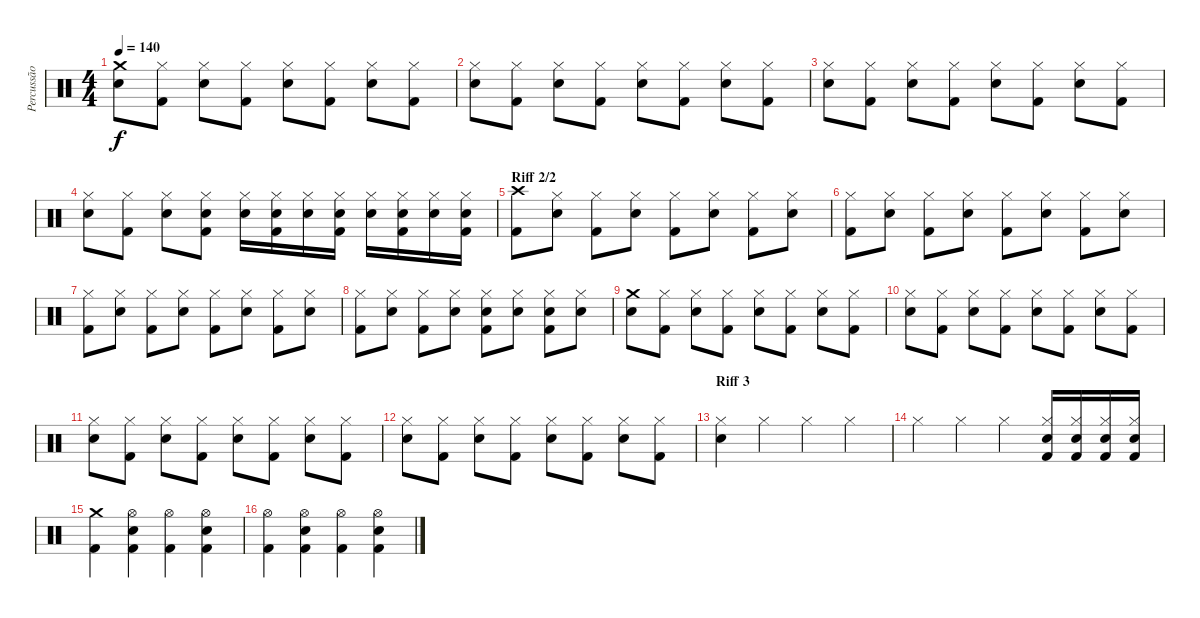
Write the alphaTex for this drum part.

\track ("Percussão" "Percussão") {instrument percussion}
\staff {score}
\articulation defaults
\ts (4 4)
\tempo 140
\clef neutral
\ks c
("Crash medium (hit)" "Snare (hit) 2").8{dy f} ("Hi-Hat (closed)" "Kick (hit) 2").8 ("Hi-Hat (closed)" "Snare (hit) 2").8 ("Hi-Hat (closed)" "Kick (hit) 2").8 ("Hi-Hat (closed)" "Snare (hit) 2").8 ("Hi-Hat (closed)" "Kick (hit) 2").8 ("Hi-Hat (closed)" "Snare (hit) 2").8 ("Hi-Hat (closed)" "Kick (hit) 2").8 |
("Hi-Hat (closed)" "Snare (hit) 2").8 ("Hi-Hat (closed)" "Kick (hit) 2").8 ("Hi-Hat (closed)" "Snare (hit) 2").8 ("Hi-Hat (closed)" "Kick (hit) 2").8 ("Hi-Hat (closed)" "Snare (hit) 2").8 ("Hi-Hat (closed)" "Kick (hit) 2").8 ("Hi-Hat (closed)" "Snare (hit) 2").8 ("Hi-Hat (closed)" "Kick (hit) 2").8 |
("Hi-Hat (closed)" "Snare (hit) 2").8 ("Hi-Hat (closed)" "Kick (hit) 2").8 ("Hi-Hat (closed)" "Snare (hit) 2").8 ("Hi-Hat (closed)" "Kick (hit) 2").8 ("Hi-Hat (closed)" "Snare (hit) 2").8 ("Hi-Hat (closed)" "Kick (hit) 2").8 ("Hi-Hat (closed)" "Snare (hit) 2").8 ("Hi-Hat (closed)" "Kick (hit) 2").8 |
("Hi-Hat (closed)" "Snare (hit) 2").8 ("Hi-Hat (closed)" "Kick (hit) 2").8 ("Hi-Hat (closed)" "Snare (hit) 2").8 ("Hi-Hat (closed)" "Snare (hit) 2" "Kick (hit) 2").8 ("Hi-Hat (closed)" "Electric Snare (hit)").16 ("Hi-Hat (closed)" "Electric Snare (hit)" "Kick (hit) 2").16 ("Hi-Hat (closed)" "Electric Snare (hit)").16 ("Hi-Hat (closed)" "Electric Snare (hit)" "Kick (hit) 2").16 ("Hi-Hat (closed)" "Snare (hit) 2").16 ("Hi-Hat (closed)" "Snare (hit) 2" "Kick (hit) 2").16 ("Hi-Hat (closed)" "Snare (hit) 2").16 ("Hi-Hat (closed)" "Snare (hit) 2" "Kick (hit) 2").16 |
\section ("" "Riff 2/2")
("Crash high (hit)" "Kick (hit) 2").8 ("Hi-Hat (closed)" "Snare (hit) 2").8 ("Hi-Hat (closed)" "Kick (hit) 2").8 ("Hi-Hat (closed)" "Snare (hit) 2").8 ("Hi-Hat (closed)" "Kick (hit) 2").8 ("Hi-Hat (closed)" "Snare (hit) 2").8 ("Hi-Hat (closed)" "Kick (hit) 2").8 ("Hi-Hat (closed)" "Snare (hit) 2").8 |
("Hi-Hat (closed)" "Kick (hit) 2").8 ("Hi-Hat (closed)" "Snare (hit) 2").8 ("Hi-Hat (closed)" "Kick (hit) 2").8 ("Hi-Hat (closed)" "Snare (hit) 2").8 ("Hi-Hat (closed)" "Kick (hit) 2").8 ("Hi-Hat (closed)" "Snare (hit) 2").8 ("Hi-Hat (closed)" "Kick (hit) 2").8 ("Hi-Hat (closed)" "Snare (hit) 2").8 |
("Hi-Hat (closed)" "Kick (hit) 2").8 ("Hi-Hat (closed)" "Snare (hit) 2").8 ("Hi-Hat (closed)" "Kick (hit) 2").8 ("Hi-Hat (closed)" "Snare (hit) 2").8 ("Hi-Hat (closed)" "Kick (hit) 2").8 ("Hi-Hat (closed)" "Snare (hit) 2").8 ("Hi-Hat (closed)" "Kick (hit) 2").8 ("Hi-Hat (closed)" "Snare (hit) 2").8 |
("Hi-Hat (closed)" "Kick (hit) 2").8 ("Hi-Hat (closed)" "Snare (hit) 2").8 ("Hi-Hat (closed)" "Kick (hit) 2").8 ("Hi-Hat (closed)" "Snare (hit) 2").8 ("Hi-Hat (closed)" "Snare (hit) 2" "Kick (hit) 2").8 ("Hi-Hat (closed)" "Snare (hit) 2").8 ("Hi-Hat (closed)" "Snare (hit) 2" "Kick (hit) 2").8 ("Hi-Hat (closed)" "Snare (hit) 2").8 |
("Crash medium (hit)" "Snare (hit) 2").8 ("Hi-Hat (closed)" "Kick (hit) 2").8 ("Hi-Hat (closed)" "Snare (hit) 2").8 ("Hi-Hat (closed)" "Kick (hit) 2").8 ("Hi-Hat (closed)" "Snare (hit) 2").8 ("Hi-Hat (closed)" "Kick (hit) 2").8 ("Hi-Hat (closed)" "Snare (hit) 2").8 ("Hi-Hat (closed)" "Kick (hit) 2").8 |
("Hi-Hat (closed)" "Snare (hit) 2").8 ("Hi-Hat (closed)" "Kick (hit) 2").8 ("Hi-Hat (closed)" "Snare (hit) 2").8 ("Hi-Hat (closed)" "Kick (hit) 2").8 ("Hi-Hat (closed)" "Snare (hit) 2").8 ("Hi-Hat (closed)" "Kick (hit) 2").8 ("Hi-Hat (closed)" "Snare (hit) 2").8 ("Hi-Hat (closed)" "Kick (hit) 2").8 |
("Hi-Hat (closed)" "Snare (hit) 2").8 ("Hi-Hat (closed)" "Kick (hit) 2").8 ("Hi-Hat (closed)" "Snare (hit) 2").8 ("Hi-Hat (closed)" "Kick (hit) 2").8 ("Hi-Hat (closed)" "Snare (hit) 2").8 ("Hi-Hat (closed)" "Kick (hit) 2").8 ("Hi-Hat (closed)" "Snare (hit) 2").8 ("Hi-Hat (closed)" "Kick (hit) 2").8 |
("Hi-Hat (closed)" "Snare (hit) 2").8 ("Hi-Hat (closed)" "Kick (hit) 2").8 ("Hi-Hat (closed)" "Snare (hit) 2").8 ("Hi-Hat (closed)" "Kick (hit) 2").8 ("Hi-Hat (closed)" "Snare (hit) 2").8 ("Hi-Hat (closed)" "Kick (hit) 2").8 ("Hi-Hat (closed)" "Snare (hit) 2").8 ("Hi-Hat (closed)" "Kick (hit) 2").8 |
\section ("" "Riff 3")
("Hi-Hat (closed)" "Snare (hit) 2").4 "Hi-Hat (closed)".4 "Hi-Hat (closed)".4 "Hi-Hat (closed)".4 |
"Hi-Hat (closed)".4 "Hi-Hat (closed)".4 "Hi-Hat (closed)".4 ("Hi-Hat (closed)" "Snare (hit) 2" "Kick (hit) 2").16 ("Hi-Hat (closed)" "Snare (hit) 2" "Kick (hit) 2").16 ("Hi-Hat (closed)" "Snare (hit) 2" "Kick (hit) 2").16 ("Hi-Hat (closed)" "Snare (hit) 2" "Kick (hit) 2").16 |
("Crash medium (hit)" "Kick (hit) 2").4 ("Hi-Hat (open)" "Snare (hit) 2" "Kick (hit) 2").4 ("Hi-Hat (open)" "Kick (hit) 2").4 ("Hi-Hat (open)" "Snare (hit) 2" "Kick (hit) 2").4 |
("Hi-Hat (open)" "Kick (hit) 2").4 ("Hi-Hat (open)" "Snare (hit) 2" "Kick (hit) 2").4 ("Hi-Hat (open)" "Kick (hit) 2").4 ("Hi-Hat (open)" "Snare (hit) 2" "Kick (hit) 2").4
